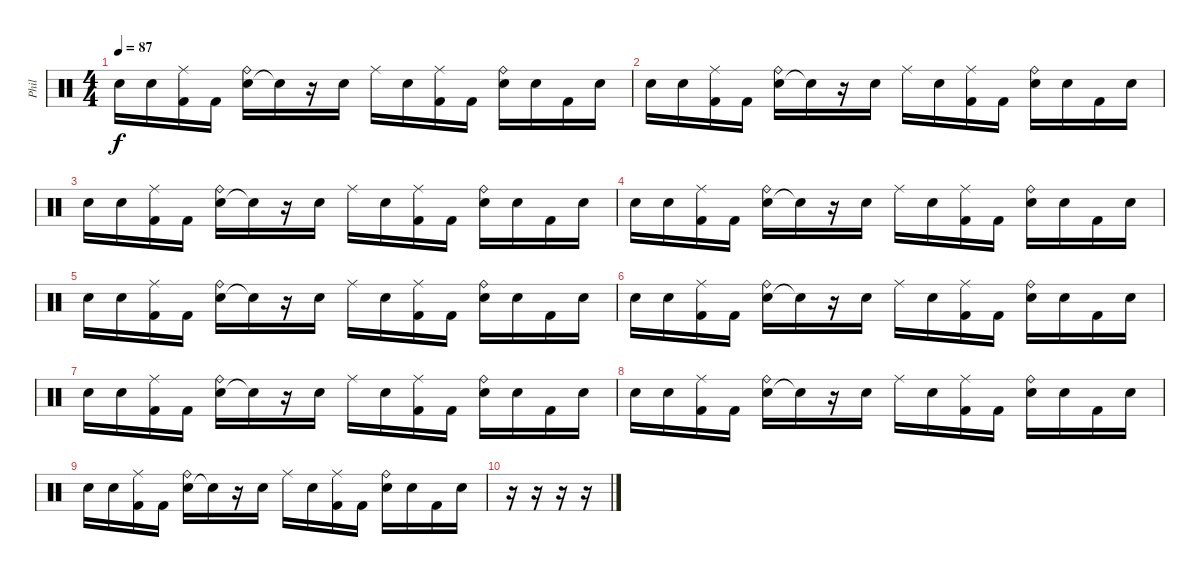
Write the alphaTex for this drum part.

\track ("Phil" "Phil") {instrument percussion}
\staff {score}
\articulation defaults
\ts (4 4)
\tempo 87
\clef neutral
\ks c "Snare (hit) 2".16{dy f} "Snare (hit) 2".16
("Ride (middle)" "Kick (hit) 2").16 "Kick (hit) 2".16 ("Snare (hit) 2" "Ride (bell)").16 "Snare (hit)"{t}.16 r.16 "Snare (hit) 2".16 "Ride (middle)".16 "Snare (hit) 2".16 ("Ride (middle)" "Kick (hit) 2").16 "Kick (hit) 2".16 ("Snare (hit) 2" "Ride (bell)").16 "Snare (hit) 2".16 "Kick (hit) 2".16 "Snare (hit) 2".16 |
"Snare (hit) 2".16 "Snare (hit) 2".16 ("Ride (middle)" "Kick (hit) 2").16 "Kick (hit) 2".16 ("Snare (hit) 2" "Ride (bell)").16 "Snare (hit)"{t}.16 r.16 "Snare (hit) 2".16 "Ride (middle)".16 "Snare (hit) 2".16 ("Ride (middle)" "Kick (hit) 2").16 "Kick (hit) 2".16 ("Snare (hit) 2" "Ride (bell)").16 "Snare (hit) 2".16 "Kick (hit) 2".16 "Snare (hit) 2".16 |
"Snare (hit) 2".16 "Snare (hit) 2".16 ("Ride (middle)" "Kick (hit) 2").16 "Kick (hit) 2".16 ("Snare (hit) 2" "Ride (bell)").16 "Snare (hit)"{t}.16 r.16 "Snare (hit) 2".16 "Ride (middle)".16 "Snare (hit) 2".16 ("Ride (middle)" "Kick (hit) 2").16 "Kick (hit) 2".16 ("Snare (hit) 2" "Ride (bell)").16 "Snare (hit) 2".16 "Kick (hit) 2".16 "Snare (hit) 2".16 |
"Snare (hit) 2".16 "Snare (hit) 2".16 ("Ride (middle)" "Kick (hit) 2").16 "Kick (hit) 2".16 ("Snare (hit) 2" "Ride (bell)").16 "Snare (hit)"{t}.16 r.16 "Snare (hit) 2".16 "Ride (middle)".16 "Snare (hit) 2".16 ("Ride (middle)" "Kick (hit) 2").16 "Kick (hit) 2".16 ("Snare (hit) 2" "Ride (bell)").16 "Snare (hit) 2".16 "Kick (hit) 2".16 "Snare (hit) 2".16 |
"Snare (hit) 2".16 "Snare (hit) 2".16 ("Ride (middle)" "Kick (hit) 2").16 "Kick (hit) 2".16 ("Snare (hit) 2" "Ride (bell)").16 "Snare (hit)"{t}.16 r.16 "Snare (hit) 2".16 "Ride (middle)".16 "Snare (hit) 2".16 ("Ride (middle)" "Kick (hit) 2").16 "Kick (hit) 2".16 ("Snare (hit) 2" "Ride (bell)").16 "Snare (hit) 2".16 "Kick (hit) 2".16 "Snare (hit) 2".16 |
"Snare (hit) 2".16 "Snare (hit) 2".16 ("Ride (middle)" "Kick (hit) 2").16 "Kick (hit) 2".16 ("Snare (hit) 2" "Ride (bell)").16 "Snare (hit)"{t}.16 r.16 "Snare (hit) 2".16 "Ride (middle)".16 "Snare (hit) 2".16 ("Ride (middle)" "Kick (hit) 2").16 "Kick (hit) 2".16 ("Snare (hit) 2" "Ride (bell)").16 "Snare (hit) 2".16 "Kick (hit) 2".16 "Snare (hit) 2".16 |
"Snare (hit) 2".16 "Snare (hit) 2".16 ("Ride (middle)" "Kick (hit) 2").16 "Kick (hit) 2".16 ("Snare (hit) 2" "Ride (bell)").16 "Snare (hit)"{t}.16 r.16 "Snare (hit) 2".16 "Ride (middle)".16 "Snare (hit) 2".16 ("Ride (middle)" "Kick (hit) 2").16 "Kick (hit) 2".16 ("Snare (hit) 2" "Ride (bell)").16 "Snare (hit) 2".16 "Kick (hit) 2".16 "Snare (hit) 2".16 |
"Snare (hit) 2".16 "Snare (hit) 2".16 ("Ride (middle)" "Kick (hit) 2").16 "Kick (hit) 2".16 ("Snare (hit) 2" "Ride (bell)").16 "Snare (hit)"{t}.16 r.16 "Snare (hit) 2".16 "Ride (middle)".16 "Snare (hit) 2".16 ("Ride (middle)" "Kick (hit) 2").16 "Kick (hit) 2".16 ("Snare (hit) 2" "Ride (bell)").16 "Snare (hit) 2".16 "Kick (hit) 2".16 "Snare (hit) 2".16 |
"Snare (hit) 2".16 "Snare (hit) 2".16 ("Ride (middle)" "Kick (hit) 2").16 "Kick (hit) 2".16 ("Snare (hit) 2" "Ride (bell)").16 "Snare (hit)"{t}.16 r.16 "Snare (hit) 2".16 "Ride (middle)".16 "Snare (hit) 2".16 ("Ride (middle)" "Kick (hit) 2").16 "Kick (hit) 2".16 ("Snare (hit) 2" "Ride (bell)").16 "Snare (hit) 2".16 "Kick (hit) 2".16 "Snare (hit) 2".16 |
r.16 r.16 r.16 r.16
